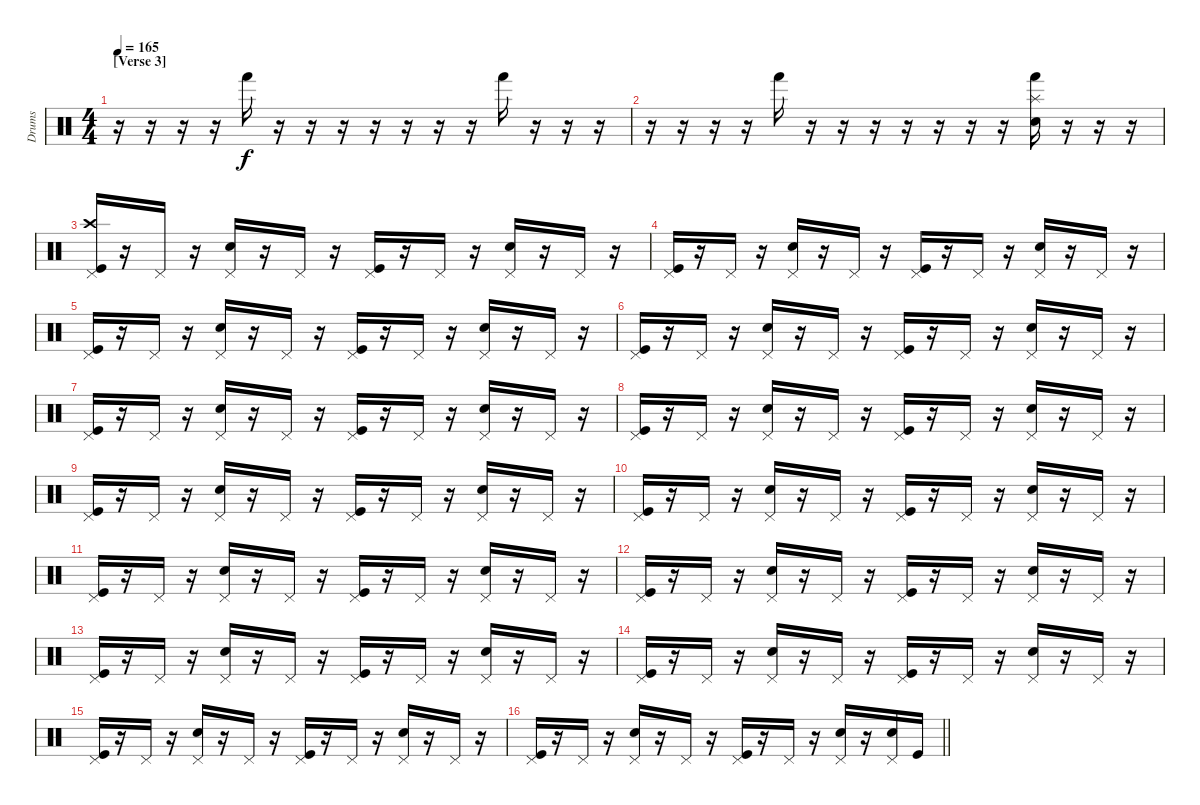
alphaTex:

\track ("Drums" "Drums") {instrument percussion}
\staff {score}
\articulation defaults
\ts (4 4)
\section ("" "[Verse 3]")
\tempo 165
\clef neutral
\ks c
r.16{dy f} r.16 r.16 r.16 "Hand (hit)".16 r.16 r.16 r.16 r.16 r.16 r.16 r.16 "Hand (hit)".16 r.16 r.16 r.16 |
r.16 r.16 r.16 r.16 "Hand (hit)".16 r.16 r.16 r.16 r.16 r.16 r.16 r.16 ("Splash (hit)" "Hand (hit)" "Snare (hit) 2").16 r.16 r.16 r.16 |
("Pedal Hi-Hat (hit)" "Crash high (hit)" "Kick (hit)").16 r.16 "Pedal Hi-Hat (hit)".16 r.16 ("Pedal Hi-Hat (hit)" "Snare (hit) 2").16 r.16 "Pedal Hi-Hat (hit)".16 r.16 ("Pedal Hi-Hat (hit)" "Kick (hit)").16 r.16 "Pedal Hi-Hat (hit)".16 r.16 ("Pedal Hi-Hat (hit)" "Snare (hit) 2").16 r.16 "Pedal Hi-Hat (hit)".16 r.16 |
("Pedal Hi-Hat (hit)" "Kick (hit)").16 r.16 "Pedal Hi-Hat (hit)".16 r.16 ("Pedal Hi-Hat (hit)" "Snare (hit) 2").16 r.16 "Pedal Hi-Hat (hit)".16 r.16 ("Pedal Hi-Hat (hit)" "Kick (hit)").16 r.16 "Pedal Hi-Hat (hit)".16 r.16 ("Pedal Hi-Hat (hit)" "Snare (hit) 2").16 r.16 "Pedal Hi-Hat (hit)".16 r.16 |
("Pedal Hi-Hat (hit)" "Kick (hit)").16 r.16 "Pedal Hi-Hat (hit)".16 r.16 ("Pedal Hi-Hat (hit)" "Snare (hit) 2").16 r.16 "Pedal Hi-Hat (hit)".16 r.16 ("Pedal Hi-Hat (hit)" "Kick (hit)").16 r.16 "Pedal Hi-Hat (hit)".16 r.16 ("Pedal Hi-Hat (hit)" "Snare (hit) 2").16 r.16 "Pedal Hi-Hat (hit)".16 r.16 |
("Pedal Hi-Hat (hit)" "Kick (hit)").16 r.16 "Pedal Hi-Hat (hit)".16 r.16 ("Pedal Hi-Hat (hit)" "Snare (hit) 2").16 r.16 "Pedal Hi-Hat (hit)".16 r.16 ("Pedal Hi-Hat (hit)" "Kick (hit)").16 r.16 "Pedal Hi-Hat (hit)".16 r.16 ("Pedal Hi-Hat (hit)" "Snare (hit) 2").16 r.16 "Pedal Hi-Hat (hit)".16 r.16 |
("Pedal Hi-Hat (hit)" "Kick (hit)").16 r.16 "Pedal Hi-Hat (hit)".16 r.16 ("Pedal Hi-Hat (hit)" "Snare (hit) 2").16 r.16 "Pedal Hi-Hat (hit)".16 r.16 ("Pedal Hi-Hat (hit)" "Kick (hit)").16 r.16 "Pedal Hi-Hat (hit)".16 r.16 ("Pedal Hi-Hat (hit)" "Snare (hit) 2").16 r.16 "Pedal Hi-Hat (hit)".16 r.16 |
("Pedal Hi-Hat (hit)" "Kick (hit)").16 r.16 "Pedal Hi-Hat (hit)".16 r.16 ("Pedal Hi-Hat (hit)" "Snare (hit) 2").16 r.16 "Pedal Hi-Hat (hit)".16 r.16 ("Pedal Hi-Hat (hit)" "Kick (hit)").16 r.16 "Pedal Hi-Hat (hit)".16 r.16 ("Pedal Hi-Hat (hit)" "Snare (hit) 2").16 r.16 "Pedal Hi-Hat (hit)".16 r.16 |
("Pedal Hi-Hat (hit)" "Kick (hit)").16 r.16 "Pedal Hi-Hat (hit)".16 r.16 ("Pedal Hi-Hat (hit)" "Snare (hit) 2").16 r.16 "Pedal Hi-Hat (hit)".16 r.16 ("Pedal Hi-Hat (hit)" "Kick (hit)").16 r.16 "Pedal Hi-Hat (hit)".16 r.16 ("Pedal Hi-Hat (hit)" "Snare (hit) 2").16 r.16 "Pedal Hi-Hat (hit)".16 r.16 |
("Pedal Hi-Hat (hit)" "Kick (hit)").16 r.16 "Pedal Hi-Hat (hit)".16 r.16 ("Pedal Hi-Hat (hit)" "Snare (hit) 2").16 r.16 "Pedal Hi-Hat (hit)".16 r.16 ("Pedal Hi-Hat (hit)" "Kick (hit)").16 r.16 "Pedal Hi-Hat (hit)".16 r.16 ("Pedal Hi-Hat (hit)" "Snare (hit) 2").16 r.16 "Pedal Hi-Hat (hit)".16 r.16 |
("Pedal Hi-Hat (hit)" "Kick (hit)").16 r.16 "Pedal Hi-Hat (hit)".16 r.16 ("Pedal Hi-Hat (hit)" "Snare (hit) 2").16 r.16 "Pedal Hi-Hat (hit)".16 r.16 ("Pedal Hi-Hat (hit)" "Kick (hit)").16 r.16 "Pedal Hi-Hat (hit)".16 r.16 ("Pedal Hi-Hat (hit)" "Snare (hit) 2").16 r.16 "Pedal Hi-Hat (hit)".16 r.16 |
("Pedal Hi-Hat (hit)" "Kick (hit)").16 r.16 "Pedal Hi-Hat (hit)".16 r.16 ("Pedal Hi-Hat (hit)" "Snare (hit) 2").16 r.16 "Pedal Hi-Hat (hit)".16 r.16 ("Pedal Hi-Hat (hit)" "Kick (hit)").16 r.16 "Pedal Hi-Hat (hit)".16 r.16 ("Pedal Hi-Hat (hit)" "Snare (hit) 2").16 r.16 "Pedal Hi-Hat (hit)".16 r.16 |
("Pedal Hi-Hat (hit)" "Kick (hit)").16 r.16 "Pedal Hi-Hat (hit)".16 r.16 ("Pedal Hi-Hat (hit)" "Snare (hit) 2").16 r.16 "Pedal Hi-Hat (hit)".16 r.16 ("Pedal Hi-Hat (hit)" "Kick (hit)").16 r.16 "Pedal Hi-Hat (hit)".16 r.16 ("Pedal Hi-Hat (hit)" "Snare (hit) 2").16 r.16 "Pedal Hi-Hat (hit)".16 r.16 |
("Pedal Hi-Hat (hit)" "Kick (hit)").16 r.16 "Pedal Hi-Hat (hit)".16 r.16 ("Pedal Hi-Hat (hit)" "Snare (hit) 2").16 r.16 "Pedal Hi-Hat (hit)".16 r.16 ("Pedal Hi-Hat (hit)" "Kick (hit)").16 r.16 "Pedal Hi-Hat (hit)".16 r.16 ("Pedal Hi-Hat (hit)" "Snare (hit) 2").16 r.16 "Pedal Hi-Hat (hit)".16 r.16 |
("Pedal Hi-Hat (hit)" "Kick (hit)").16 r.16 "Pedal Hi-Hat (hit)".16 r.16 ("Pedal Hi-Hat (hit)" "Snare (hit) 2").16 r.16 "Pedal Hi-Hat (hit)".16 r.16 ("Pedal Hi-Hat (hit)" "Kick (hit)").16 r.16 "Pedal Hi-Hat (hit)".16 r.16 ("Pedal Hi-Hat (hit)" "Snare (hit) 2").16 r.16 "Pedal Hi-Hat (hit)".16 r.16 |
\barLineRight lightlight
("Pedal Hi-Hat (hit)" "Kick (hit)").16 r.16 "Pedal Hi-Hat (hit)".16 r.16 ("Pedal Hi-Hat (hit)" "Snare (hit) 2").16 r.16 "Pedal Hi-Hat (hit)".16 r.16 ("Pedal Hi-Hat (hit)" "Kick (hit)").16 r.16 "Pedal Hi-Hat (hit)".16 r.16 ("Pedal Hi-Hat (hit)" "Snare (hit) 2").16 r.16 ("Pedal Hi-Hat (hit)" "Snare (hit) 2").16 "Kick (hit)".16
